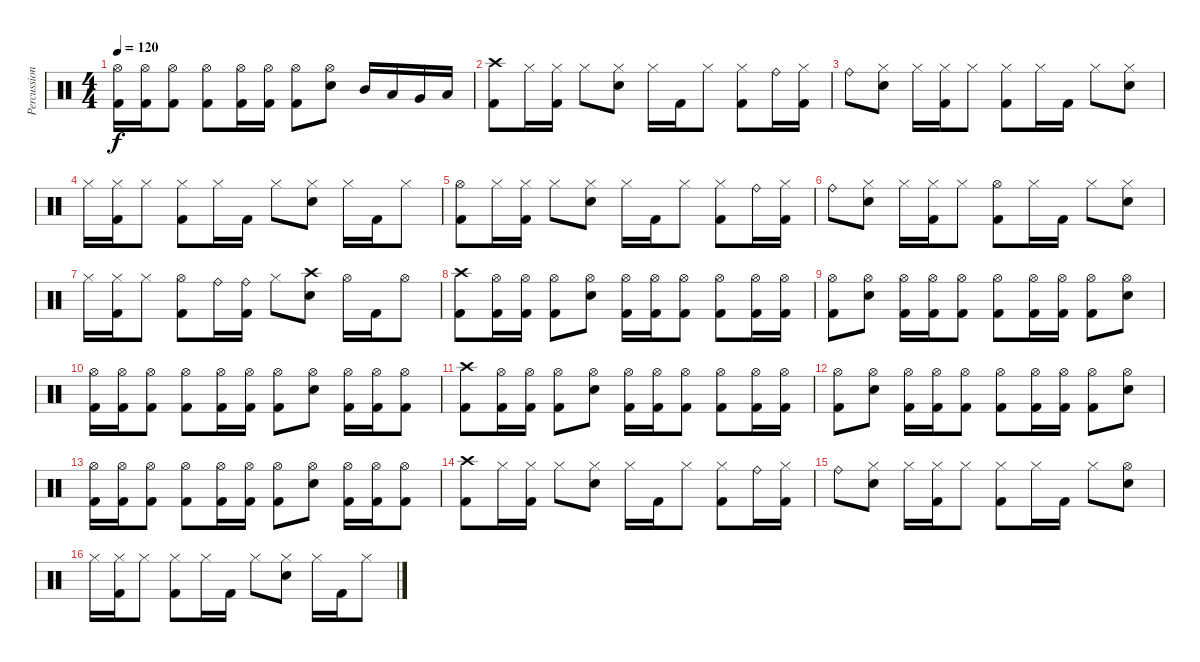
\track ("Percussion" "Percussion") {instrument percussion}
\staff {score}
\articulation defaults
\ts (4 4)
\tempo 120
\clef neutral
\ks c
("Hi-Hat (open)" "Kick (hit) 2").16{dy f} ("Hi-Hat (open)" "Kick (hit) 2").16 ("Hi-Hat (open)" "Kick (hit) 2").8 ("Hi-Hat (open)" "Kick (hit) 2").8 ("Hi-Hat (open)" "Kick (hit) 2").16 ("Hi-Hat (open)" "Kick (hit) 2").16 ("Hi-Hat (open)" "Kick (hit) 2").8 ("Hi-Hat (open)" "Snare (hit) 2").8 "Mid Tom (hit)".16 "Low Tom (hit)".16 "Very Low Tom (hit)".16 "Low Floor Tom (hit)".16 |
("Crash high (hit)" "Kick (hit) 2").8 "Hi-Hat (closed)".16 ("Hi-Hat (closed)" "Kick (hit) 2").16 "Hi-Hat (closed)".8 ("Hi-Hat (closed)" "Snare (hit) 2").8 "Hi-Hat (closed)".16 "Kick (hit) 2".16 "Hi-Hat (closed)".8 ("Hi-Hat (closed)" "Kick (hit) 2").8 "Ride (bell)".16 ("Hi-Hat (closed)" "Kick (hit) 2").16 |
"Ride (bell)".8 ("Hi-Hat (closed)" "Snare (hit) 2").8 "Hi-Hat (closed)".16 ("Hi-Hat (closed)" "Kick (hit) 2").16 "Hi-Hat (closed)".8 ("Hi-Hat (closed)" "Kick (hit) 2").8 "Hi-Hat (closed)".16 "Kick (hit) 2".16 "Hi-Hat (closed)".8 ("Hi-Hat (closed)" "Snare (hit) 2").8 |
"Hi-Hat (closed)".16 ("Hi-Hat (closed)" "Kick (hit) 2").16 "Hi-Hat (closed)".8 ("Hi-Hat (closed)" "Kick (hit) 2").8 "Hi-Hat (closed)".16 "Kick (hit) 2".16 "Hi-Hat (closed)".8 ("Hi-Hat (closed)" "Snare (hit) 2").8 "Hi-Hat (closed)".16 "Kick (hit) 2".16 "Hi-Hat (closed)".8 |
("Hi-Hat (open)" "Kick (hit) 2").8 "Hi-Hat (closed)".16 ("Hi-Hat (closed)" "Kick (hit) 2").16 "Hi-Hat (closed)".8 ("Hi-Hat (closed)" "Snare (hit) 2").8 "Hi-Hat (closed)".16 "Kick (hit) 2".16 "Hi-Hat (closed)".8 ("Hi-Hat (closed)" "Kick (hit) 2").8 "Ride (bell)".16 ("Hi-Hat (closed)" "Kick (hit) 2").16 |
"Ride (bell)".8 ("Hi-Hat (closed)" "Snare (hit) 2").8 "Hi-Hat (closed)".16 ("Hi-Hat (closed)" "Kick (hit) 2").16 "Hi-Hat (closed)".8 ("Hi-Hat (open)" "Kick (hit) 2").8 "Hi-Hat (closed)".16 "Kick (hit) 2".16 "Hi-Hat (closed)".8 ("Hi-Hat (closed)" "Snare (hit) 2").8 |
"Hi-Hat (closed)".16 ("Hi-Hat (closed)" "Kick (hit) 2").16 "Hi-Hat (closed)".8 ("Hi-Hat (open)" "Kick (hit) 2").8 "Ride (bell)".16 ("Ride (bell)" "Kick (hit) 2").16 "Hi-Hat (closed)".8 ("Crash high (hit)" "Snare (hit) 2").8 "Hi-Hat (open)".16 "Kick (hit) 2".16 "Hi-Hat (open)".8 |
("Crash high (hit)" "Kick (hit) 2").8 ("Hi-Hat (open)" "Kick (hit) 2").16 ("Hi-Hat (open)" "Kick (hit) 2").16 ("Hi-Hat (open)" "Kick (hit) 2").8 ("Hi-Hat (open)" "Snare (hit) 2").8 ("Hi-Hat (open)" "Kick (hit) 2").16 ("Hi-Hat (open)" "Kick (hit) 2").16 ("Hi-Hat (open)" "Kick (hit) 2").8 ("Hi-Hat (open)" "Kick (hit) 2").8 ("Hi-Hat (open)" "Kick (hit) 2").16 ("Hi-Hat (open)" "Kick (hit) 2").16 |
("Hi-Hat (open)" "Kick (hit) 2").8 ("Hi-Hat (open)" "Snare (hit) 2").8 ("Hi-Hat (open)" "Kick (hit) 2").16 ("Hi-Hat (open)" "Kick (hit) 2").16 ("Hi-Hat (open)" "Kick (hit) 2").8 ("Hi-Hat (open)" "Kick (hit) 2").8 ("Hi-Hat (open)" "Kick (hit) 2").16 ("Hi-Hat (open)" "Kick (hit) 2").16 ("Hi-Hat (open)" "Kick (hit) 2").8 ("Hi-Hat (open)" "Snare (hit) 2").8 |
("Hi-Hat (open)" "Kick (hit) 2").16 ("Hi-Hat (open)" "Kick (hit) 2").16 ("Hi-Hat (open)" "Kick (hit) 2").8 ("Hi-Hat (open)" "Kick (hit) 2").8 ("Hi-Hat (open)" "Kick (hit) 2").16 ("Hi-Hat (open)" "Kick (hit) 2").16 ("Hi-Hat (open)" "Kick (hit) 2").8 ("Hi-Hat (open)" "Snare (hit) 2").8 ("Hi-Hat (open)" "Kick (hit) 2").16 ("Hi-Hat (open)" "Kick (hit) 2").16 ("Hi-Hat (open)" "Kick (hit) 2").8 |
("Crash high (hit)" "Kick (hit) 2").8 ("Hi-Hat (open)" "Kick (hit) 2").16 ("Hi-Hat (open)" "Kick (hit) 2").16 ("Hi-Hat (open)" "Kick (hit) 2").8 ("Hi-Hat (open)" "Snare (hit) 2").8 ("Hi-Hat (open)" "Kick (hit) 2").16 ("Hi-Hat (open)" "Kick (hit) 2").16 ("Hi-Hat (open)" "Kick (hit) 2").8 ("Hi-Hat (open)" "Kick (hit) 2").8 ("Hi-Hat (open)" "Kick (hit) 2").16 ("Hi-Hat (open)" "Kick (hit) 2").16 |
("Hi-Hat (open)" "Kick (hit) 2").8 ("Hi-Hat (open)" "Snare (hit) 2").8 ("Hi-Hat (open)" "Kick (hit) 2").16 ("Hi-Hat (open)" "Kick (hit) 2").16 ("Hi-Hat (open)" "Kick (hit) 2").8 ("Hi-Hat (open)" "Kick (hit) 2").8 ("Hi-Hat (open)" "Kick (hit) 2").16 ("Hi-Hat (open)" "Kick (hit) 2").16 ("Hi-Hat (open)" "Kick (hit) 2").8 ("Hi-Hat (open)" "Snare (hit) 2").8 |
("Hi-Hat (open)" "Kick (hit) 2").16 ("Hi-Hat (open)" "Kick (hit) 2").16 ("Hi-Hat (open)" "Kick (hit) 2").8 ("Hi-Hat (open)" "Kick (hit) 2").8 ("Hi-Hat (open)" "Kick (hit) 2").16 ("Hi-Hat (open)" "Kick (hit) 2").16 ("Hi-Hat (open)" "Kick (hit) 2").8 ("Hi-Hat (open)" "Snare (hit) 2").8 ("Hi-Hat (open)" "Kick (hit) 2").16 ("Hi-Hat (open)" "Kick (hit) 2").16 ("Hi-Hat (open)" "Kick (hit) 2").8 |
("Crash high (hit)" "Kick (hit) 2").8 "Hi-Hat (closed)".16 ("Hi-Hat (closed)" "Kick (hit) 2").16 "Hi-Hat (closed)".8 ("Hi-Hat (closed)" "Snare (hit) 2").8 "Hi-Hat (closed)".16 "Kick (hit) 2".16 "Hi-Hat (closed)".8 ("Hi-Hat (closed)" "Kick (hit) 2").8 "Ride (bell)".16 ("Hi-Hat (closed)" "Kick (hit) 2").16 |
"Ride (bell)".8 ("Hi-Hat (closed)" "Snare (hit) 2").8 "Hi-Hat (closed)".16 ("Hi-Hat (closed)" "Kick (hit) 2").16 "Hi-Hat (closed)".8 ("Hi-Hat (closed)" "Kick (hit) 2").8 "Hi-Hat (closed)".16 "Kick (hit) 2".16 "Hi-Hat (closed)".8 ("Hi-Hat (open)" "Snare (hit) 2").8 |
"Hi-Hat (closed)".16 ("Hi-Hat (closed)" "Kick (hit) 2").16 "Hi-Hat (closed)".8 ("Hi-Hat (closed)" "Kick (hit) 2").8 "Hi-Hat (closed)".16 "Kick (hit) 2".16 "Hi-Hat (closed)".8 ("Hi-Hat (closed)" "Snare (hit) 2").8 "Hi-Hat (closed)".16 "Kick (hit) 2".16 "Hi-Hat (closed)".8
